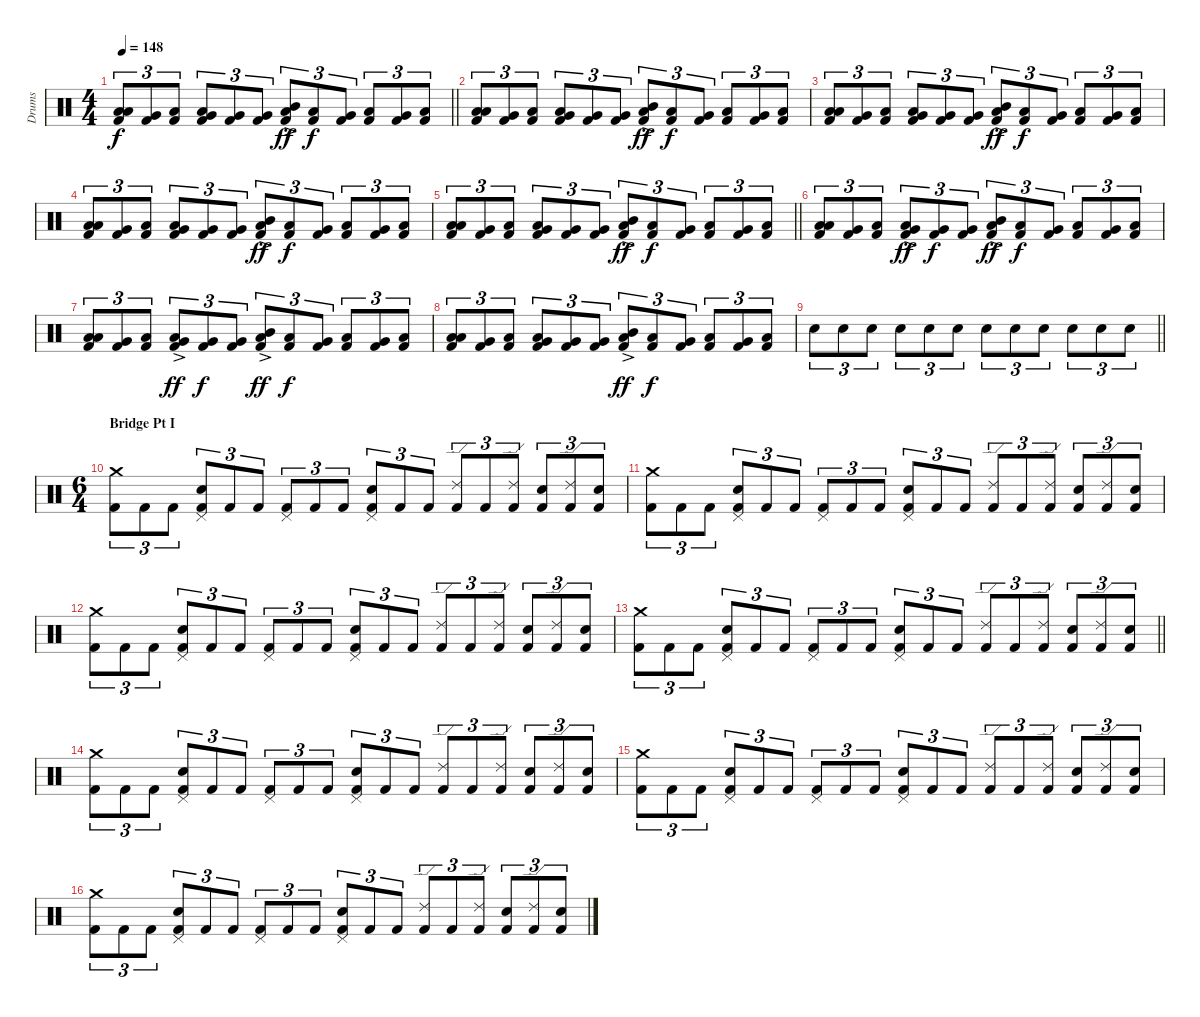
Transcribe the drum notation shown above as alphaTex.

\track ("Drums" "Drums") {instrument percussion}
\staff {score}
\articulation defaults
\ts (4 4)
\tempo 148
\clef neutral
\barLineRight lightlight
\ks c
("Kick (hit) 2" "Low Floor Tom (hit)" "Low Tom (hit)").8{tu (3 2) dy f} ("Kick (hit) 2" "Very Low Tom (hit)").8{tu (3 2)} ("Kick (hit) 2" "Low Floor Tom (hit)").8{tu (3 2)} ("Kick (hit) 2" "Low Floor Tom (hit)" "Very Low Tom (hit)").8{tu (3 2)} ("Kick (hit) 2" "Very Low Tom (hit)").8{tu (3 2)} ("Kick (hit) 2" "Very Low Tom (hit)").8{tu (3 2)} ("Kick (hit) 2" "Mid Tom (hit)"{ac} "Low Tom (hit)"{ac}).8{tu (3 2) dy ff} ("Kick (hit) 2" "Low Floor Tom (hit)").8{tu (3 2) dy f} ("Kick (hit) 2" "Very Low Tom (hit)").8{tu (3 2)} ("Kick (hit) 2" "Low Floor Tom (hit)").8{tu (3 2)} ("Kick (hit) 2" "Very Low Tom (hit)").8{tu (3 2)} ("Kick (hit) 2" "Low Floor Tom (hit)").8{tu (3 2)} |
\section ("" "")
("Kick (hit) 2" "Low Floor Tom (hit)" "Low Tom (hit)").8{tu (3 2)} ("Kick (hit) 2" "Very Low Tom (hit)").8{tu (3 2)} ("Kick (hit) 2" "Low Floor Tom (hit)").8{tu (3 2)} ("Kick (hit) 2" "Low Floor Tom (hit)" "Very Low Tom (hit)").8{tu (3 2)} ("Kick (hit) 2" "Very Low Tom (hit)").8{tu (3 2)} ("Kick (hit) 2" "Very Low Tom (hit)").8{tu (3 2)} ("Kick (hit) 2" "Mid Tom (hit)"{ac} "Low Tom (hit)"{ac}).8{tu (3 2) dy ff} ("Kick (hit) 2" "Low Floor Tom (hit)").8{tu (3 2) dy f} ("Kick (hit) 2" "Very Low Tom (hit)").8{tu (3 2)} ("Kick (hit) 2" "Low Floor Tom (hit)").8{tu (3 2)} ("Kick (hit) 2" "Very Low Tom (hit)").8{tu (3 2)} ("Kick (hit) 2" "Low Floor Tom (hit)").8{tu (3 2)} |
("Kick (hit) 2" "Low Floor Tom (hit)" "Low Tom (hit)").8{tu (3 2)} ("Kick (hit) 2" "Very Low Tom (hit)").8{tu (3 2)} ("Kick (hit) 2" "Low Floor Tom (hit)").8{tu (3 2)} ("Kick (hit) 2" "Low Floor Tom (hit)" "Very Low Tom (hit)").8{tu (3 2)} ("Kick (hit) 2" "Very Low Tom (hit)").8{tu (3 2)} ("Kick (hit) 2" "Very Low Tom (hit)").8{tu (3 2)} ("Kick (hit) 2" "Mid Tom (hit)"{ac} "Low Tom (hit)"{ac}).8{tu (3 2) dy ff} ("Kick (hit) 2" "Low Floor Tom (hit)").8{tu (3 2) dy f} ("Kick (hit) 2" "Very Low Tom (hit)").8{tu (3 2)} ("Kick (hit) 2" "Low Floor Tom (hit)").8{tu (3 2)} ("Kick (hit) 2" "Very Low Tom (hit)").8{tu (3 2)} ("Kick (hit) 2" "Low Floor Tom (hit)").8{tu (3 2)} |
("Kick (hit) 2" "Low Floor Tom (hit)" "Low Tom (hit)").8{tu (3 2)} ("Kick (hit) 2" "Very Low Tom (hit)").8{tu (3 2)} ("Kick (hit) 2" "Low Floor Tom (hit)").8{tu (3 2)} ("Kick (hit) 2" "Low Floor Tom (hit)" "Very Low Tom (hit)").8{tu (3 2)} ("Kick (hit) 2" "Very Low Tom (hit)").8{tu (3 2)} ("Kick (hit) 2" "Very Low Tom (hit)").8{tu (3 2)} ("Kick (hit) 2" "Mid Tom (hit)"{ac} "Low Tom (hit)"{ac}).8{tu (3 2) dy ff} ("Kick (hit) 2" "Low Floor Tom (hit)").8{tu (3 2) dy f} ("Kick (hit) 2" "Very Low Tom (hit)").8{tu (3 2)} ("Kick (hit) 2" "Low Floor Tom (hit)").8{tu (3 2)} ("Kick (hit) 2" "Very Low Tom (hit)").8{tu (3 2)} ("Kick (hit) 2" "Low Floor Tom (hit)").8{tu (3 2)} |
\barLineRight lightlight
("Kick (hit) 2" "Low Floor Tom (hit)" "Low Tom (hit)").8{tu (3 2)} ("Kick (hit) 2" "Very Low Tom (hit)").8{tu (3 2)} ("Kick (hit) 2" "Low Floor Tom (hit)").8{tu (3 2)} ("Kick (hit) 2" "Low Floor Tom (hit)" "Very Low Tom (hit)").8{tu (3 2)} ("Kick (hit) 2" "Very Low Tom (hit)").8{tu (3 2)} ("Kick (hit) 2" "Very Low Tom (hit)").8{tu (3 2)} ("Kick (hit) 2" "Mid Tom (hit)"{ac} "Low Tom (hit)"{ac}).8{tu (3 2) dy ff} ("Kick (hit) 2" "Low Floor Tom (hit)").8{tu (3 2) dy f} ("Kick (hit) 2" "Very Low Tom (hit)").8{tu (3 2)} ("Kick (hit) 2" "Low Floor Tom (hit)").8{tu (3 2)} ("Kick (hit) 2" "Very Low Tom (hit)").8{tu (3 2)} ("Kick (hit) 2" "Low Floor Tom (hit)").8{tu (3 2)} |
\section ("" "")
("Kick (hit) 2" "Low Floor Tom (hit)" "Low Tom (hit)").8{tu (3 2)} ("Kick (hit) 2" "Very Low Tom (hit)").8{tu (3 2)} ("Kick (hit) 2" "Low Floor Tom (hit)").8{tu (3 2)} ("Kick (hit) 2" "Low Floor Tom (hit)"{ac} "Very Low Tom (hit)"{ac}).8{tu (3 2) dy ff} ("Kick (hit) 2" "Very Low Tom (hit)").8{tu (3 2) dy f} ("Kick (hit) 2" "Very Low Tom (hit)").8{tu (3 2)} ("Kick (hit) 2" "Mid Tom (hit)"{ac} "Low Tom (hit)"{ac}).8{tu (3 2) dy ff} ("Kick (hit) 2" "Low Floor Tom (hit)").8{tu (3 2) dy f} ("Kick (hit) 2" "Very Low Tom (hit)").8{tu (3 2)} ("Kick (hit) 2" "Low Floor Tom (hit)").8{tu (3 2)} ("Kick (hit) 2" "Very Low Tom (hit)").8{tu (3 2)} ("Kick (hit) 2" "Low Floor Tom (hit)").8{tu (3 2)} |
("Kick (hit) 2" "Low Floor Tom (hit)" "Low Tom (hit)").8{tu (3 2)} ("Kick (hit) 2" "Very Low Tom (hit)").8{tu (3 2)} ("Kick (hit) 2" "Low Floor Tom (hit)").8{tu (3 2)} ("Kick (hit) 2" "Low Floor Tom (hit)"{ac} "Very Low Tom (hit)"{ac}).8{tu (3 2) dy ff} ("Kick (hit) 2" "Very Low Tom (hit)").8{tu (3 2) dy f} ("Kick (hit) 2" "Very Low Tom (hit)").8{tu (3 2)} ("Kick (hit) 2" "Mid Tom (hit)"{ac} "Low Tom (hit)"{ac}).8{tu (3 2) dy ff} ("Kick (hit) 2" "Low Floor Tom (hit)").8{tu (3 2) dy f} ("Kick (hit) 2" "Very Low Tom (hit)").8{tu (3 2)} ("Kick (hit) 2" "Low Floor Tom (hit)").8{tu (3 2)} ("Kick (hit) 2" "Very Low Tom (hit)").8{tu (3 2)} ("Kick (hit) 2" "Low Floor Tom (hit)").8{tu (3 2)} |
("Kick (hit) 2" "Low Floor Tom (hit)" "Low Tom (hit)").8{tu (3 2)} ("Kick (hit) 2" "Very Low Tom (hit)").8{tu (3 2)} ("Kick (hit) 2" "Low Floor Tom (hit)").8{tu (3 2)} ("Kick (hit) 2" "Low Floor Tom (hit)" "Very Low Tom (hit)").8{tu (3 2)} ("Kick (hit) 2" "Very Low Tom (hit)").8{tu (3 2)} ("Kick (hit) 2" "Very Low Tom (hit)").8{tu (3 2)} ("Kick (hit) 2" "Mid Tom (hit)"{ac} "Low Tom (hit)"{ac}).8{tu (3 2) dy ff} ("Kick (hit) 2" "Low Floor Tom (hit)").8{tu (3 2) dy f} ("Kick (hit) 2" "Very Low Tom (hit)").8{tu (3 2)} ("Kick (hit) 2" "Low Floor Tom (hit)").8{tu (3 2)} ("Kick (hit) 2" "Very Low Tom (hit)").8{tu (3 2)} ("Kick (hit) 2" "Low Floor Tom (hit)").8{tu (3 2)} |
\barLineRight lightlight "Snare (hit) 2".8{tu (3 2)} "Snare (hit) 2".8{tu (3 2)} "Snare (hit) 2".8{tu (3 2)} "Snare (hit) 2".8{tu (3 2)} "Snare (hit) 2".8{tu (3 2)} "Snare (hit) 2".8{tu (3 2)} "Snare (hit) 2".8{tu (3 2)} "Snare (hit) 2".8{tu (3 2)} "Snare (hit) 2".8{tu (3 2)} "Snare (hit) 2".8{tu (3 2)} "Snare (hit) 2".8{tu (3 2)} "Snare (hit) 2".8{tu (3 2)}
|
\ts (6 4)
\section ("" "Bridge Pt I")
("Kick (hit) 2" "Crash medium (hit)").8{tu (3 2)} "Kick (hit) 2".8{tu (3 2)} "Kick (hit) 2".8{tu (3 2)} ("Kick (hit) 2" "Snare (hit) 2" "Pedal Hi-Hat (hit)").8{tu (3 2)} "Kick (hit) 2".8{tu (3 2)} "Kick (hit) 2".8{tu (3 2)} ("Kick (hit) 2" "Pedal Hi-Hat (hit)").8{tu (3 2)} "Kick (hit) 2".8{tu (3 2)} "Kick (hit) 2".8{tu (3 2)} ("Kick (hit) 2" "Snare (hit) 2" "Pedal Hi-Hat (hit)").8{tu (3 2)} "Kick (hit) 2".8{tu (3 2)} "Kick (hit) 2".8{tu (3 2)} ("Kick (hit) 2" "Ride (edge) 2").8{tu (3 2)} "Kick (hit) 2".8{tu (3 2)} ("Kick (hit) 2" "Ride (edge) 2").8{tu (3 2)} ("Kick (hit) 2" "Snare (hit) 2").8{tu (3 2)} ("Kick (hit) 2" "Ride (edge) 2").8{tu (3 2)} ("Kick (hit) 2" "Snare (hit) 2").8{tu (3 2)} |
("Kick (hit) 2" "Crash medium (hit)").8{tu (3 2)} "Kick (hit) 2".8{tu (3 2)} "Kick (hit) 2".8{tu (3 2)} ("Kick (hit) 2" "Snare (hit) 2" "Pedal Hi-Hat (hit)").8{tu (3 2)} "Kick (hit) 2".8{tu (3 2)} "Kick (hit) 2".8{tu (3 2)} ("Kick (hit) 2" "Pedal Hi-Hat (hit)").8{tu (3 2)} "Kick (hit) 2".8{tu (3 2)} "Kick (hit) 2".8{tu (3 2)} ("Kick (hit) 2" "Snare (hit) 2" "Pedal Hi-Hat (hit)").8{tu (3 2)} "Kick (hit) 2".8{tu (3 2)} "Kick (hit) 2".8{tu (3 2)} ("Kick (hit) 2" "Ride (edge) 2").8{tu (3 2)} "Kick (hit) 2".8{tu (3 2)} ("Kick (hit) 2" "Ride (edge) 2").8{tu (3 2)} ("Kick (hit) 2" "Snare (hit) 2").8{tu (3 2)} ("Kick (hit) 2" "Ride (edge) 2").8{tu (3 2)} ("Kick (hit) 2" "Snare (hit) 2").8{tu (3 2)} |
("Kick (hit) 2" "Crash medium (hit)").8{tu (3 2)} "Kick (hit) 2".8{tu (3 2)} "Kick (hit) 2".8{tu (3 2)} ("Kick (hit) 2" "Snare (hit) 2" "Pedal Hi-Hat (hit)").8{tu (3 2)} "Kick (hit) 2".8{tu (3 2)} "Kick (hit) 2".8{tu (3 2)} ("Kick (hit) 2" "Pedal Hi-Hat (hit)").8{tu (3 2)} "Kick (hit) 2".8{tu (3 2)} "Kick (hit) 2".8{tu (3 2)} ("Kick (hit) 2" "Snare (hit) 2" "Pedal Hi-Hat (hit)").8{tu (3 2)} "Kick (hit) 2".8{tu (3 2)} "Kick (hit) 2".8{tu (3 2)} ("Kick (hit) 2" "Ride (edge) 2").8{tu (3 2)} "Kick (hit) 2".8{tu (3 2)} ("Kick (hit) 2" "Ride (edge) 2").8{tu (3 2)} ("Kick (hit) 2" "Snare (hit) 2").8{tu (3 2)} ("Kick (hit) 2" "Ride (edge) 2").8{tu (3 2)} ("Kick (hit) 2" "Snare (hit) 2").8{tu (3 2)} |
\barLineRight lightlight
("Kick (hit) 2" "Crash medium (hit)").8{tu (3 2)} "Kick (hit) 2".8{tu (3 2)} "Kick (hit) 2".8{tu (3 2)} ("Kick (hit) 2" "Snare (hit) 2" "Pedal Hi-Hat (hit)").8{tu (3 2)} "Kick (hit) 2".8{tu (3 2)} "Kick (hit) 2".8{tu (3 2)} ("Kick (hit) 2" "Pedal Hi-Hat (hit)").8{tu (3 2)} "Kick (hit) 2".8{tu (3 2)} "Kick (hit) 2".8{tu (3 2)} ("Kick (hit) 2" "Snare (hit) 2" "Pedal Hi-Hat (hit)").8{tu (3 2)} "Kick (hit) 2".8{tu (3 2)} "Kick (hit) 2".8{tu (3 2)} ("Kick (hit) 2" "Ride (edge) 2").8{tu (3 2)} "Kick (hit) 2".8{tu (3 2)} ("Kick (hit) 2" "Ride (edge) 2").8{tu (3 2)} ("Kick (hit) 2" "Snare (hit) 2").8{tu (3 2)} ("Kick (hit) 2" "Ride (edge) 2").8{tu (3 2)} ("Kick (hit) 2" "Snare (hit) 2").8{tu (3 2)} |
\section ("" "")
("Kick (hit) 2" "Crash medium (hit)").8{tu (3 2)} "Kick (hit) 2".8{tu (3 2)} "Kick (hit) 2".8{tu (3 2)} ("Kick (hit) 2" "Snare (hit) 2" "Pedal Hi-Hat (hit)").8{tu (3 2)} "Kick (hit) 2".8{tu (3 2)} "Kick (hit) 2".8{tu (3 2)} ("Kick (hit) 2" "Pedal Hi-Hat (hit)").8{tu (3 2)} "Kick (hit) 2".8{tu (3 2)} "Kick (hit) 2".8{tu (3 2)} ("Kick (hit) 2" "Snare (hit) 2" "Pedal Hi-Hat (hit)").8{tu (3 2)} "Kick (hit) 2".8{tu (3 2)} "Kick (hit) 2".8{tu (3 2)} ("Kick (hit) 2" "Ride (edge) 2").8{tu (3 2)} "Kick (hit) 2".8{tu (3 2)} ("Kick (hit) 2" "Ride (edge) 2").8{tu (3 2)} ("Kick (hit) 2" "Snare (hit) 2").8{tu (3 2)} ("Kick (hit) 2" "Ride (edge) 2").8{tu (3 2)} ("Kick (hit) 2" "Snare (hit) 2").8{tu (3 2)} |
("Kick (hit) 2" "Crash medium (hit)").8{tu (3 2)} "Kick (hit) 2".8{tu (3 2)} "Kick (hit) 2".8{tu (3 2)} ("Kick (hit) 2" "Snare (hit) 2" "Pedal Hi-Hat (hit)").8{tu (3 2)} "Kick (hit) 2".8{tu (3 2)} "Kick (hit) 2".8{tu (3 2)} ("Kick (hit) 2" "Pedal Hi-Hat (hit)").8{tu (3 2)} "Kick (hit) 2".8{tu (3 2)} "Kick (hit) 2".8{tu (3 2)} ("Kick (hit) 2" "Snare (hit) 2" "Pedal Hi-Hat (hit)").8{tu (3 2)} "Kick (hit) 2".8{tu (3 2)} "Kick (hit) 2".8{tu (3 2)} ("Kick (hit) 2" "Ride (edge) 2").8{tu (3 2)} "Kick (hit) 2".8{tu (3 2)} ("Kick (hit) 2" "Ride (edge) 2").8{tu (3 2)} ("Kick (hit) 2" "Snare (hit) 2").8{tu (3 2)} ("Kick (hit) 2" "Ride (edge) 2").8{tu (3 2)} ("Kick (hit) 2" "Snare (hit) 2").8{tu (3 2)} |
("Kick (hit) 2" "Crash medium (hit)").8{tu (3 2)} "Kick (hit) 2".8{tu (3 2)} "Kick (hit) 2".8{tu (3 2)} ("Kick (hit) 2" "Snare (hit) 2" "Pedal Hi-Hat (hit)").8{tu (3 2)} "Kick (hit) 2".8{tu (3 2)} "Kick (hit) 2".8{tu (3 2)} ("Kick (hit) 2" "Pedal Hi-Hat (hit)").8{tu (3 2)} "Kick (hit) 2".8{tu (3 2)} "Kick (hit) 2".8{tu (3 2)} ("Kick (hit) 2" "Snare (hit) 2" "Pedal Hi-Hat (hit)").8{tu (3 2)} "Kick (hit) 2".8{tu (3 2)} "Kick (hit) 2".8{tu (3 2)} ("Kick (hit) 2" "Ride (edge) 2").8{tu (3 2)} "Kick (hit) 2".8{tu (3 2)} ("Kick (hit) 2" "Ride (edge) 2").8{tu (3 2)} ("Kick (hit) 2" "Snare (hit) 2").8{tu (3 2)} ("Kick (hit) 2" "Ride (edge) 2").8{tu (3 2)} ("Kick (hit) 2" "Snare (hit) 2").8{tu (3 2)}
